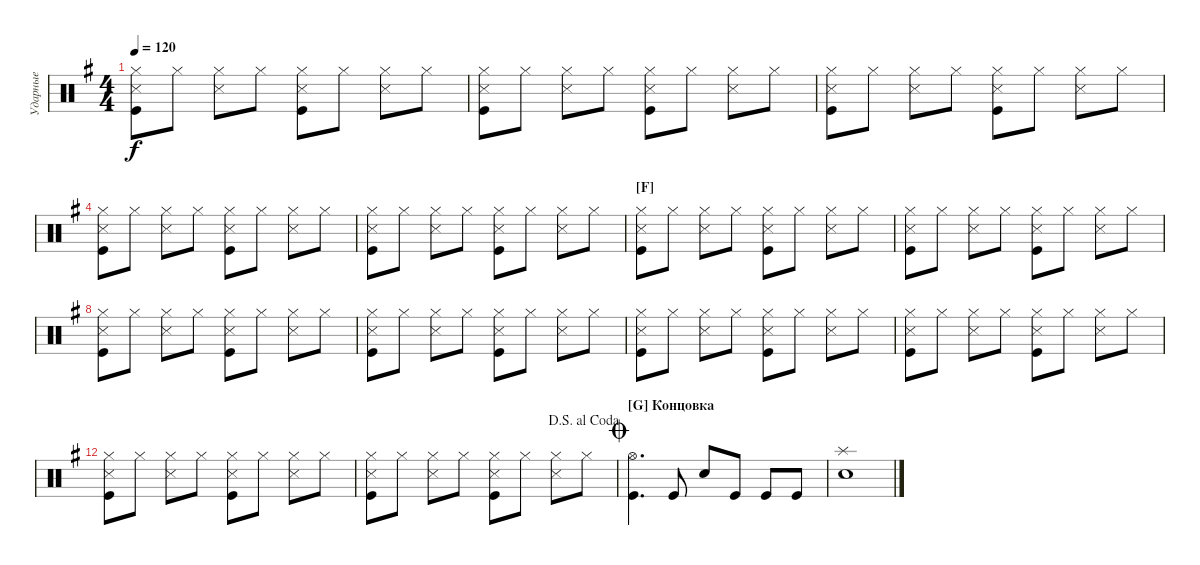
\defaultSystemsLayout 4
\bracketExtendMode groupsimilarinstruments
\multiTrackTrackNamePolicy hidden
\firstSystemTrackNameMode fullname
\otherSystemsTrackNameMode fullname
\otherSystemsTrackNameOrientation horizontal
\defaultBarNumberDisplay FirstOfSystem
\track ("Ударные" "Drums") {multiBarRest instrument percussion}
\staff {score}
\articulation defaults
\ts (4 4)
\tempo 120
\clef neutral
\ks eminor
("Hi-Hat (closed)" "Snare (side stick) 3" "Kick (hit)").8{dy f} "Hi-Hat (closed)".8 ("Hi-Hat (closed)" "Snare (side stick) 3").8 "Hi-Hat (closed)".8 ("Hi-Hat (closed)" "Snare (side stick) 3" "Kick (hit)").8 "Hi-Hat (closed)".8 ("Hi-Hat (closed)" "Snare (side stick) 3").8 "Hi-Hat (closed)".8 |
("Hi-Hat (closed)" "Snare (side stick) 3" "Kick (hit)").8 "Hi-Hat (closed)".8 ("Hi-Hat (closed)" "Snare (side stick) 3").8 "Hi-Hat (closed)".8 ("Hi-Hat (closed)" "Snare (side stick) 3" "Kick (hit)").8 "Hi-Hat (closed)".8 ("Hi-Hat (closed)" "Snare (side stick) 3").8 "Hi-Hat (closed)".8 |
("Hi-Hat (closed)" "Snare (side stick) 3" "Kick (hit)").8 "Hi-Hat (closed)".8 ("Hi-Hat (closed)" "Snare (side stick) 3").8 "Hi-Hat (closed)".8 ("Hi-Hat (closed)" "Snare (side stick) 3" "Kick (hit)").8 "Hi-Hat (closed)".8 ("Hi-Hat (closed)" "Snare (side stick) 3").8 "Hi-Hat (closed)".8 |
("Hi-Hat (closed)" "Snare (side stick) 3" "Kick (hit)").8 "Hi-Hat (closed)".8 ("Hi-Hat (closed)" "Snare (side stick) 3").8 "Hi-Hat (closed)".8 ("Hi-Hat (closed)" "Snare (side stick) 3" "Kick (hit)").8 "Hi-Hat (closed)".8 ("Hi-Hat (closed)" "Snare (side stick) 3").8 "Hi-Hat (closed)".8 |
("Hi-Hat (closed)" "Snare (side stick) 3" "Kick (hit)").8 "Hi-Hat (closed)".8 ("Hi-Hat (closed)" "Snare (side stick) 3").8 "Hi-Hat (closed)".8 ("Hi-Hat (closed)" "Snare (side stick) 3" "Kick (hit)").8 "Hi-Hat (closed)".8 ("Hi-Hat (closed)" "Snare (side stick) 3").8 "Hi-Hat (closed)".8 |
\section ("F" "")
("Hi-Hat (closed)" "Snare (side stick) 3" "Kick (hit)").8 "Hi-Hat (closed)".8 ("Hi-Hat (closed)" "Snare (side stick) 3").8 "Hi-Hat (closed)".8 ("Hi-Hat (closed)" "Snare (side stick) 3" "Kick (hit)").8 "Hi-Hat (closed)".8 ("Hi-Hat (closed)" "Snare (side stick) 3").8 "Hi-Hat (closed)".8 |
("Hi-Hat (closed)" "Snare (side stick) 3" "Kick (hit)").8 "Hi-Hat (closed)".8 ("Hi-Hat (closed)" "Snare (side stick) 3").8 "Hi-Hat (closed)".8 ("Hi-Hat (closed)" "Snare (side stick) 3" "Kick (hit)").8 "Hi-Hat (closed)".8 ("Hi-Hat (closed)" "Snare (side stick) 3").8 "Hi-Hat (closed)".8 |
("Hi-Hat (closed)" "Snare (side stick) 3" "Kick (hit)").8 "Hi-Hat (closed)".8 ("Hi-Hat (closed)" "Snare (side stick) 3").8 "Hi-Hat (closed)".8 ("Hi-Hat (closed)" "Snare (side stick) 3" "Kick (hit)").8 "Hi-Hat (closed)".8 ("Hi-Hat (closed)" "Snare (side stick) 3").8 "Hi-Hat (closed)".8 |
("Hi-Hat (closed)" "Snare (side stick) 3" "Kick (hit)").8 "Hi-Hat (closed)".8 ("Hi-Hat (closed)" "Snare (side stick) 3").8 "Hi-Hat (closed)".8 ("Hi-Hat (closed)" "Snare (side stick) 3" "Kick (hit)").8 "Hi-Hat (closed)".8 ("Hi-Hat (closed)" "Snare (side stick) 3").8 "Hi-Hat (closed)".8 |
("Hi-Hat (closed)" "Snare (side stick) 3" "Kick (hit)").8 "Hi-Hat (closed)".8 ("Hi-Hat (closed)" "Snare (side stick) 3").8 "Hi-Hat (closed)".8 ("Hi-Hat (closed)" "Snare (side stick) 3" "Kick (hit)").8 "Hi-Hat (closed)".8 ("Hi-Hat (closed)" "Snare (side stick) 3").8 "Hi-Hat (closed)".8 |
("Hi-Hat (closed)" "Snare (side stick) 3" "Kick (hit)").8 "Hi-Hat (closed)".8 ("Hi-Hat (closed)" "Snare (side stick) 3").8 "Hi-Hat (closed)".8 ("Hi-Hat (closed)" "Snare (side stick) 3" "Kick (hit)").8 "Hi-Hat (closed)".8 ("Hi-Hat (closed)" "Snare (side stick) 3").8 "Hi-Hat (closed)".8 |
("Hi-Hat (closed)" "Snare (side stick) 3" "Kick (hit)").8 "Hi-Hat (closed)".8 ("Hi-Hat (closed)" "Snare (side stick) 3").8 "Hi-Hat (closed)".8 ("Hi-Hat (closed)" "Snare (side stick) 3" "Kick (hit)").8 "Hi-Hat (closed)".8 ("Hi-Hat (closed)" "Snare (side stick) 3").8 "Hi-Hat (closed)".8 |
\jump dalsegnoalcoda
("Hi-Hat (closed)" "Snare (side stick) 3" "Kick (hit)").8 "Hi-Hat (closed)".8 ("Hi-Hat (closed)" "Snare (side stick) 3").8 "Hi-Hat (closed)".8 ("Hi-Hat (closed)" "Snare (side stick) 3" "Kick (hit)").8 "Hi-Hat (closed)".8 ("Hi-Hat (closed)" "Snare (side stick) 3").8 "Hi-Hat (closed)".8 |
\section ("G" "Концовка")
\jump coda
\tempo (90 hide)
\tempo (69 0.975 hide)
("Kick (hit)" "Hi-Hat (open)").4{d} "Kick (hit)".8 "Snare (hit) 2".8 "Kick (hit)".8 "Kick (hit)".8 "Kick (hit)".8 |
("Snare (hit) 2" "Splash (hit)").1
